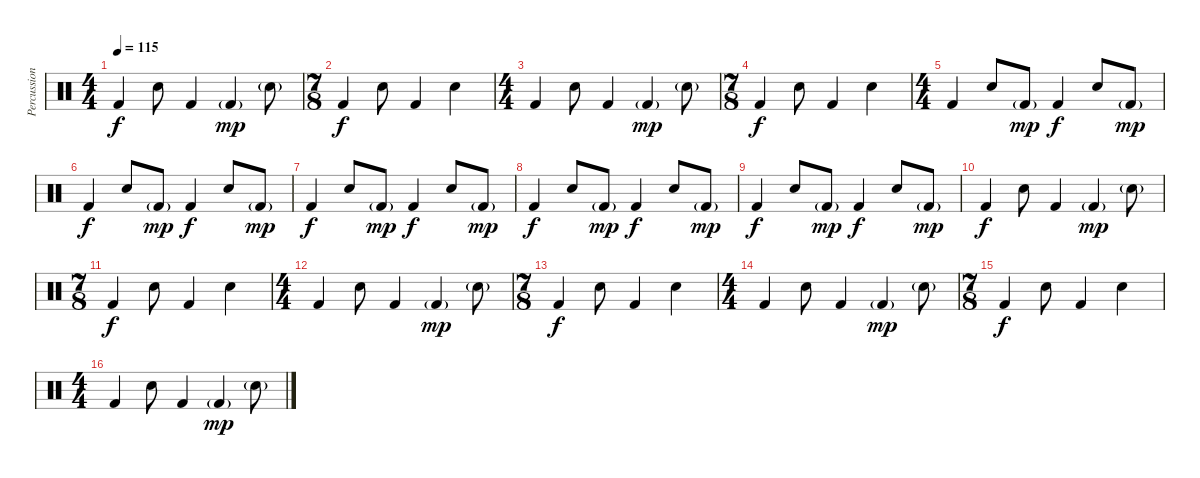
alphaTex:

\track ("Percussion" "Percussion") {instrument percussion}
\staff {score}
\articulation defaults
\ts (4 4)
\tempo 115
\clef neutral
\ks c "Kick (hit) 2".4{dy f} "Snare (hit) 2".8 "Kick (hit) 2".4 "Kick (hit) 2"{g}.4{dy mp} "Snare (hit) 2"{g}.8
|
\ts (7 8)
"Kick (hit) 2".4{dy f} "Snare (hit) 2".8 "Kick (hit) 2".4 "Snare (hit) 2".4 |
\ts (4 4)
"Kick (hit) 2".4 "Snare (hit) 2".8 "Kick (hit) 2".4 "Kick (hit) 2"{g}.4{dy mp} "Snare (hit) 2"{g}.8 |
\ts (7 8)
"Kick (hit) 2".4{dy f} "Snare (hit) 2".8 "Kick (hit) 2".4 "Snare (hit) 2".4 |
\ts (4 4)
"Kick (hit) 2".4 "Snare (hit) 2".8 "Kick (hit) 2"{g}.8{dy mp} "Kick (hit) 2".4{dy f} "Snare (hit) 2".8 "Kick (hit) 2"{g}.8{dy mp} |
"Kick (hit) 2".4{dy f} "Snare (hit) 2".8 "Kick (hit) 2"{g}.8{dy mp} "Kick (hit) 2".4{dy f} "Snare (hit) 2".8 "Kick (hit) 2"{g}.8{dy mp} |
"Kick (hit) 2".4{dy f} "Snare (hit) 2".8 "Kick (hit) 2"{g}.8{dy mp} "Kick (hit) 2".4{dy f} "Snare (hit) 2".8 "Kick (hit) 2"{g}.8{dy mp} |
"Kick (hit) 2".4{dy f} "Snare (hit) 2".8 "Kick (hit) 2"{g}.8{dy mp} "Kick (hit) 2".4{dy f} "Snare (hit) 2".8 "Kick (hit) 2"{g}.8{dy mp} |
"Kick (hit) 2".4{dy f} "Snare (hit) 2".8 "Kick (hit) 2"{g}.8{dy mp} "Kick (hit) 2".4{dy f} "Snare (hit) 2".8 "Kick (hit) 2"{g}.8{dy mp} |
"Kick (hit) 2".4{dy f} "Snare (hit) 2".8 "Kick (hit) 2".4 "Kick (hit) 2"{g}.4{dy mp} "Snare (hit) 2"{g}.8 |
\ts (7 8)
"Kick (hit) 2".4{dy f} "Snare (hit) 2".8 "Kick (hit) 2".4 "Snare (hit) 2".4 |
\ts (4 4)
"Kick (hit) 2".4 "Snare (hit) 2".8 "Kick (hit) 2".4 "Kick (hit) 2"{g}.4{dy mp} "Snare (hit) 2"{g}.8 |
\ts (7 8)
"Kick (hit) 2".4{dy f} "Snare (hit) 2".8 "Kick (hit) 2".4 "Snare (hit) 2".4 |
\ts (4 4)
"Kick (hit) 2".4 "Snare (hit) 2".8 "Kick (hit) 2".4 "Kick (hit) 2"{g}.4{dy mp} "Snare (hit) 2"{g}.8 |
\ts (7 8)
"Kick (hit) 2".4{dy f} "Snare (hit) 2".8 "Kick (hit) 2".4 "Snare (hit) 2".4 |
\ts (4 4)
"Kick (hit) 2".4 "Snare (hit) 2".8 "Kick (hit) 2".4 "Kick (hit) 2"{g}.4{dy mp} "Snare (hit) 2"{g}.8
